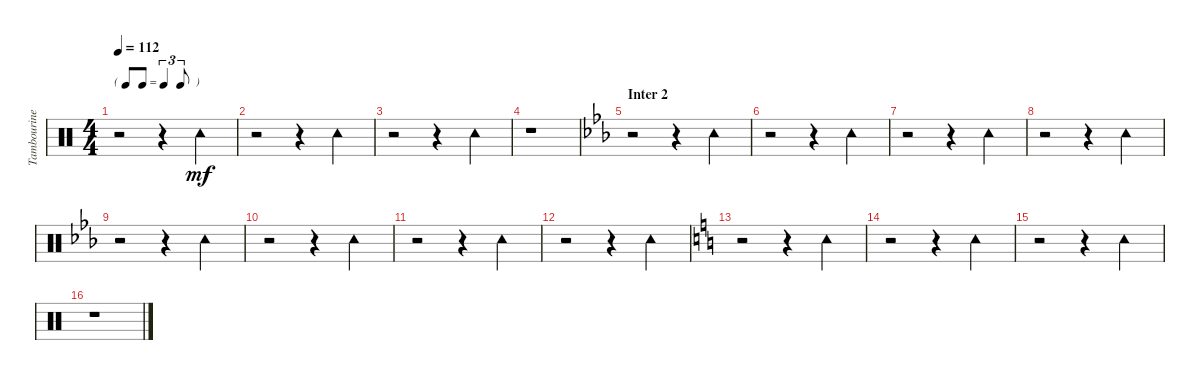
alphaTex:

\track ("Tambourine" "Tambourine") {instrument percussion}
\staff {score}
\articulation defaults
\ts (4 4)
\tf triplet8th
\tempo 112
\clef neutral
\ks c
r.2{dy mf} r.4 "Tambourine (hit)".4 |
r.2 r.4 "Tambourine (hit)".4 |
r.2 r.4 "Tambourine (hit)".4 |
r.1 |
\section ("" "Inter 2")
\ks eb
r.2 r.4 "Tambourine (hit)".4 |
r.2 r.4 "Tambourine (hit)".4 |
r.2 r.4 "Tambourine (hit)".4 |
r.2 r.4 "Tambourine (hit)".4 |
r.2 r.4 "Tambourine (hit)".4 |
r.2 r.4 "Tambourine (hit)".4 |
r.2 r.4 "Tambourine (hit)".4 |
r.2 r.4 "Tambourine (hit)".4 |
\ks c
r.2 r.4 "Tambourine (hit)".4 |
r.2 r.4 "Tambourine (hit)".4 |
r.2 r.4 "Tambourine (hit)".4 |
r.1
